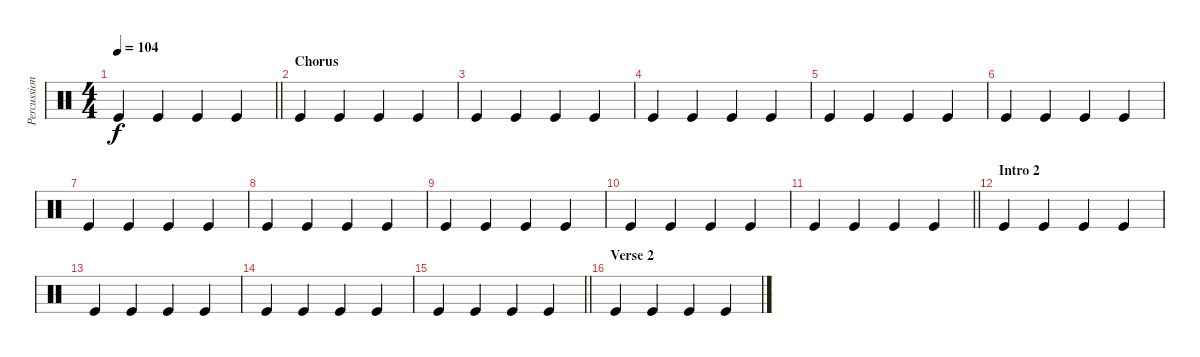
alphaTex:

\track ("Percussioni" "Percussion") {instrument percussion}
\staff {score}
\articulation defaults
\ts (4 4)
\tempo 104
\clef neutral
\barLineRight lightlight
\ks c "Kick (hit)".4{dy f} "Kick (hit)".4 "Kick (hit)".4 "Kick (hit)".4
|
\section ("" "Chorus")
"Kick (hit)".4 "Kick (hit)".4 "Kick (hit)".4 "Kick (hit)".4 |
"Kick (hit)".4 "Kick (hit)".4 "Kick (hit)".4 "Kick (hit)".4 |
"Kick (hit)".4 "Kick (hit)".4 "Kick (hit)".4 "Kick (hit)".4 |
"Kick (hit)".4 "Kick (hit)".4 "Kick (hit)".4 "Kick (hit)".4 |
"Kick (hit)".4 "Kick (hit)".4 "Kick (hit)".4 "Kick (hit)".4 |
"Kick (hit)".4 "Kick (hit)".4 "Kick (hit)".4 "Kick (hit)".4 |
"Kick (hit)".4 "Kick (hit)".4 "Kick (hit)".4 "Kick (hit)".4 |
"Kick (hit)".4 "Kick (hit)".4 "Kick (hit)".4 "Kick (hit)".4 |
"Kick (hit)".4 "Kick (hit)".4 "Kick (hit)".4 "Kick (hit)".4 |
\barLineRight lightlight "Kick (hit)".4 "Kick (hit)".4 "Kick (hit)".4 "Kick (hit)".4
|
\section ("" "Intro 2")
"Kick (hit)".4 "Kick (hit)".4 "Kick (hit)".4 "Kick (hit)".4 |
"Kick (hit)".4 "Kick (hit)".4 "Kick (hit)".4 "Kick (hit)".4 |
"Kick (hit)".4 "Kick (hit)".4 "Kick (hit)".4 "Kick (hit)".4 |
\barLineRight lightlight "Kick (hit)".4 "Kick (hit)".4 "Kick (hit)".4 "Kick (hit)".4
|
\section ("" "Verse 2")
"Kick (hit)".4 "Kick (hit)".4 "Kick (hit)".4 "Kick (hit)".4
